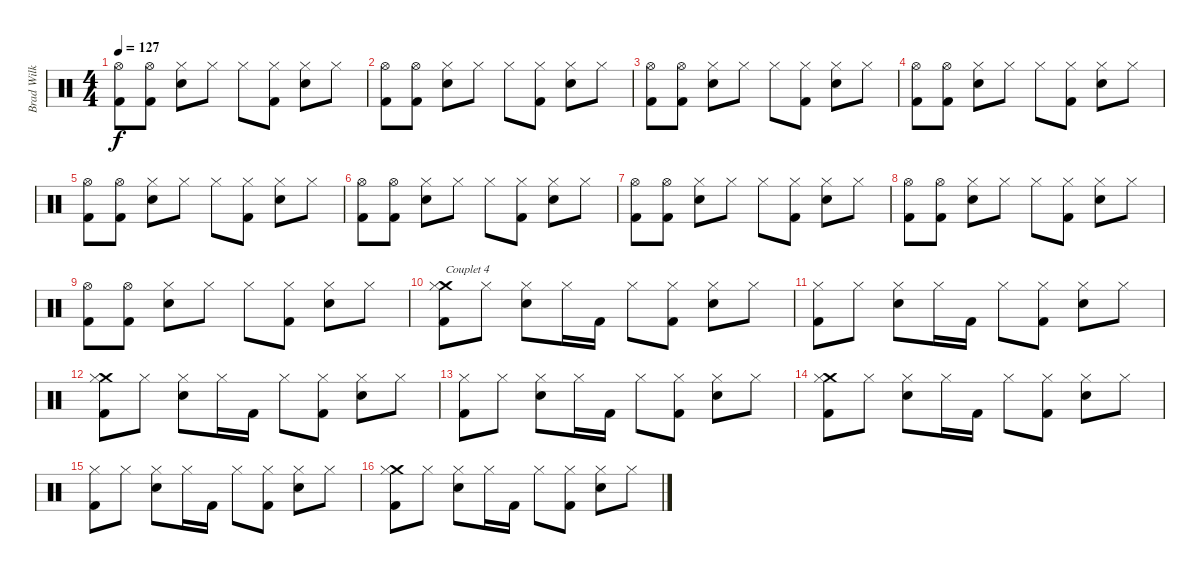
\track ("Brad Wilk" "Brad Wilk") {instrument percussion}
\staff {score}
\articulation defaults
\ts (4 4)
\tempo 127
\clef neutral
\ks c
("Hi-Hat (open)" "Kick (hit) 2").8{dy f} ("Hi-Hat (open)" "Kick (hit) 2").8 ("Electric Snare (hit)" "Hi-Hat (closed)").8 "Hi-Hat (closed)".8 "Hi-Hat (closed)".8 ("Hi-Hat (closed)" "Kick (hit) 2").8 ("Electric Snare (hit)" "Hi-Hat (closed)").8 "Hi-Hat (closed)".8 |
("Hi-Hat (open)" "Kick (hit) 2").8 ("Hi-Hat (open)" "Kick (hit) 2").8 ("Electric Snare (hit)" "Hi-Hat (closed)").8 "Hi-Hat (closed)".8 "Hi-Hat (closed)".8 ("Hi-Hat (closed)" "Kick (hit) 2").8 ("Electric Snare (hit)" "Hi-Hat (closed)").8 "Hi-Hat (closed)".8 |
("Hi-Hat (open)" "Kick (hit) 2").8 ("Hi-Hat (open)" "Kick (hit) 2").8 ("Electric Snare (hit)" "Hi-Hat (closed)").8 "Hi-Hat (closed)".8 "Hi-Hat (closed)".8 ("Hi-Hat (closed)" "Kick (hit) 2").8 ("Electric Snare (hit)" "Hi-Hat (closed)").8 "Hi-Hat (closed)".8 |
("Hi-Hat (open)" "Kick (hit) 2").8 ("Hi-Hat (open)" "Kick (hit) 2").8 ("Electric Snare (hit)" "Hi-Hat (closed)").8 "Hi-Hat (closed)".8 "Hi-Hat (closed)".8 ("Hi-Hat (closed)" "Kick (hit) 2").8 ("Electric Snare (hit)" "Hi-Hat (closed)").8 "Hi-Hat (closed)".8 |
("Hi-Hat (open)" "Kick (hit) 2").8 ("Hi-Hat (open)" "Kick (hit) 2").8 ("Electric Snare (hit)" "Hi-Hat (closed)").8 "Hi-Hat (closed)".8 "Hi-Hat (closed)".8 ("Hi-Hat (closed)" "Kick (hit) 2").8 ("Electric Snare (hit)" "Hi-Hat (closed)").8 "Hi-Hat (closed)".8 |
("Hi-Hat (open)" "Kick (hit) 2").8 ("Hi-Hat (open)" "Kick (hit) 2").8 ("Electric Snare (hit)" "Hi-Hat (closed)").8 "Hi-Hat (closed)".8 "Hi-Hat (closed)".8 ("Hi-Hat (closed)" "Kick (hit) 2").8 ("Electric Snare (hit)" "Hi-Hat (closed)").8 "Hi-Hat (closed)".8 |
("Hi-Hat (open)" "Kick (hit) 2").8 ("Hi-Hat (open)" "Kick (hit) 2").8 ("Electric Snare (hit)" "Hi-Hat (closed)").8 "Hi-Hat (closed)".8 "Hi-Hat (closed)".8 ("Hi-Hat (closed)" "Kick (hit) 2").8 ("Electric Snare (hit)" "Hi-Hat (closed)").8 "Hi-Hat (closed)".8 |
("Hi-Hat (open)" "Kick (hit) 2").8 ("Hi-Hat (open)" "Kick (hit) 2").8 ("Electric Snare (hit)" "Hi-Hat (closed)").8 "Hi-Hat (closed)".8 "Hi-Hat (closed)".8 ("Hi-Hat (closed)" "Kick (hit) 2").8 ("Electric Snare (hit)" "Hi-Hat (closed)").8 "Hi-Hat (closed)".8 |
("Hi-Hat (open)" "Kick (hit) 2").8 ("Hi-Hat (open)" "Kick (hit) 2").8 ("Electric Snare (hit)" "Hi-Hat (closed)").8 "Hi-Hat (closed)".8 "Hi-Hat (closed)".8 ("Hi-Hat (closed)" "Kick (hit) 2").8 ("Electric Snare (hit)" "Hi-Hat (closed)").8 "Hi-Hat (closed)".8 |
("Crash medium (hit)" "Hi-Hat (closed)" "Kick (hit) 2").8{txt "Couplet 4"} "Hi-Hat (closed)".8 ("Electric Snare (hit)" "Hi-Hat (closed)").8 "Hi-Hat (closed)".16 "Kick (hit) 2".16 "Hi-Hat (closed)".8 ("Hi-Hat (closed)" "Kick (hit) 2").8 ("Electric Snare (hit)" "Hi-Hat (closed)").8 "Hi-Hat (closed)".8 |
("Hi-Hat (closed)" "Kick (hit) 2").8 "Hi-Hat (closed)".8 ("Electric Snare (hit)" "Hi-Hat (closed)").8 "Hi-Hat (closed)".16 "Kick (hit) 2".16 "Hi-Hat (closed)".8 ("Hi-Hat (closed)" "Kick (hit) 2").8 ("Electric Snare (hit)" "Hi-Hat (closed)").8 "Hi-Hat (closed)".8 |
("Crash medium (hit)" "Hi-Hat (closed)" "Kick (hit) 2").8 "Hi-Hat (closed)".8 ("Electric Snare (hit)" "Hi-Hat (closed)").8 "Hi-Hat (closed)".16 "Kick (hit) 2".16 "Hi-Hat (closed)".8 ("Hi-Hat (closed)" "Kick (hit) 2").8 ("Electric Snare (hit)" "Hi-Hat (closed)").8 "Hi-Hat (closed)".8 |
("Hi-Hat (closed)" "Kick (hit) 2").8 "Hi-Hat (closed)".8 ("Electric Snare (hit)" "Hi-Hat (closed)").8 "Hi-Hat (closed)".16 "Kick (hit) 2".16 "Hi-Hat (closed)".8 ("Hi-Hat (closed)" "Kick (hit) 2").8 ("Electric Snare (hit)" "Hi-Hat (closed)").8 "Hi-Hat (closed)".8 |
("Crash medium (hit)" "Hi-Hat (closed)" "Kick (hit) 2").8 "Hi-Hat (closed)".8 ("Electric Snare (hit)" "Hi-Hat (closed)").8 "Hi-Hat (closed)".16 "Kick (hit) 2".16 "Hi-Hat (closed)".8 ("Hi-Hat (closed)" "Kick (hit) 2").8 ("Electric Snare (hit)" "Hi-Hat (closed)").8 "Hi-Hat (closed)".8 |
("Hi-Hat (closed)" "Kick (hit) 2").8 "Hi-Hat (closed)".8 ("Electric Snare (hit)" "Hi-Hat (closed)").8 "Hi-Hat (closed)".16 "Kick (hit) 2".16 "Hi-Hat (closed)".8 ("Hi-Hat (closed)" "Kick (hit) 2").8 ("Electric Snare (hit)" "Hi-Hat (closed)").8 "Hi-Hat (closed)".8 |
("Crash medium (hit)" "Hi-Hat (closed)" "Kick (hit) 2").8 "Hi-Hat (closed)".8 ("Electric Snare (hit)" "Hi-Hat (closed)").8 "Hi-Hat (closed)".16 "Kick (hit) 2".16 "Hi-Hat (closed)".8 ("Hi-Hat (closed)" "Kick (hit) 2").8 ("Electric Snare (hit)" "Hi-Hat (closed)").8 "Hi-Hat (closed)".8
